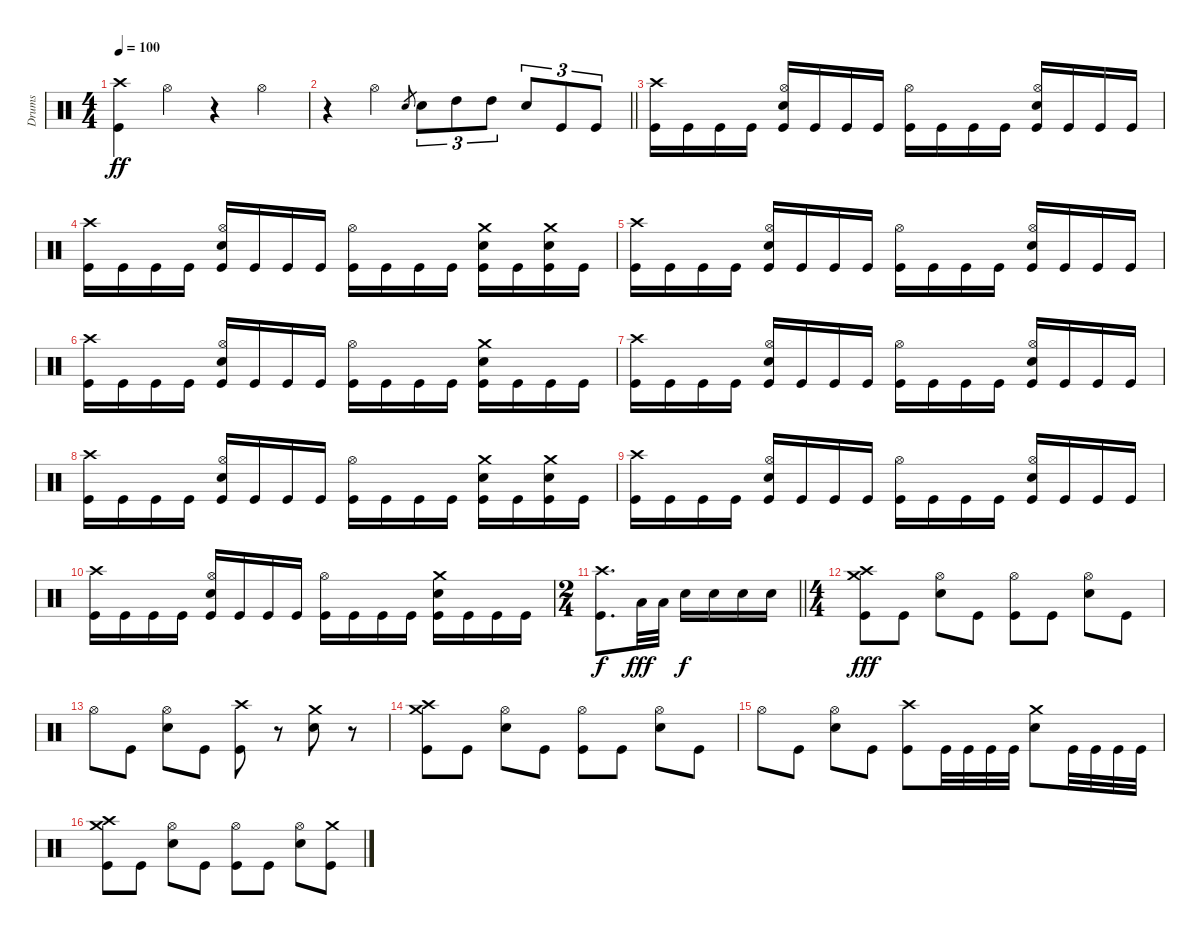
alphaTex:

\track ("Drums" "Drums") {instrument percussion}
\staff {score}
\articulation defaults
\ts (4 4)
\tempo 100
\clef neutral
\ks c
("Crash high (hit)" "Kick (hit)").4{dy ff} "Hi-Hat (open)".4 r.4 "Hi-Hat (open)".4 |
\barLineRight lightlight
r.4 "Hi-Hat (open)".4 "Snare (hit) 2".8{gr} "Snare (hit) 2".8{tu (3 2)} "High Tom (hit)".8{tu (3 2)} "High Tom (hit)".8{tu (3 2)} "Snare (hit) 2".8{tu (3 2)} "Kick (hit)".8{tu (3 2)} "Kick (hit)".8{tu (3 2)} |
("Crash high (hit)" "Kick (hit)").16 "Kick (hit)".16 "Kick (hit)".16 "Kick (hit)".16 ("Hi-Hat (open)" "Kick (hit)" "Snare (hit) 2").16 "Kick (hit)".16 "Kick (hit)".16 "Kick (hit)".16 ("Hi-Hat (open)" "Kick (hit)").16 "Kick (hit)".16 "Kick (hit)".16 "Kick (hit)".16 ("Hi-Hat (open)" "Kick (hit)" "Snare (hit) 2").16 "Kick (hit)".16 "Kick (hit)".16 "Kick (hit)".16 |
("Crash high (hit)" "Kick (hit)").16 "Kick (hit)".16 "Kick (hit)".16 "Kick (hit)".16 ("Hi-Hat (open)" "Kick (hit)" "Snare (hit) 2").16 "Kick (hit)".16 "Kick (hit)".16 "Kick (hit)".16 ("Hi-Hat (open)" "Kick (hit)").16 "Kick (hit)".16 "Kick (hit)".16 "Kick (hit)".16 ("Crash medium (hit)" "Kick (hit)" "Snare (hit) 2").16 "Kick (hit)".16 ("Crash medium (hit)" "Kick (hit)" "Snare (hit) 2").16 "Kick (hit)".16 |
("Crash high (hit)" "Kick (hit)").16 "Kick (hit)".16 "Kick (hit)".16 "Kick (hit)".16 ("Hi-Hat (open)" "Kick (hit)" "Snare (hit) 2").16 "Kick (hit)".16 "Kick (hit)".16 "Kick (hit)".16 ("Hi-Hat (open)" "Kick (hit)").16 "Kick (hit)".16 "Kick (hit)".16 "Kick (hit)".16 ("Hi-Hat (open)" "Kick (hit)" "Snare (hit) 2").16 "Kick (hit)".16 "Kick (hit)".16 "Kick (hit)".16 |
("Crash high (hit)" "Kick (hit)").16 "Kick (hit)".16 "Kick (hit)".16 "Kick (hit)".16 ("Hi-Hat (open)" "Kick (hit)" "Snare (hit) 2").16 "Kick (hit)".16 "Kick (hit)".16 "Kick (hit)".16 ("Hi-Hat (open)" "Kick (hit)").16 "Kick (hit)".16 "Kick (hit)".16 "Kick (hit)".16 ("Crash medium (hit)" "Kick (hit)" "Snare (hit) 2").16 "Kick (hit)".16 "Kick (hit)".16 "Kick (hit)".16 |
("Crash high (hit)" "Kick (hit)").16 "Kick (hit)".16 "Kick (hit)".16 "Kick (hit)".16 ("Hi-Hat (open)" "Kick (hit)" "Snare (hit) 2").16 "Kick (hit)".16 "Kick (hit)".16 "Kick (hit)".16 ("Hi-Hat (open)" "Kick (hit)").16 "Kick (hit)".16 "Kick (hit)".16 "Kick (hit)".16 ("Hi-Hat (open)" "Kick (hit)" "Snare (hit) 2").16 "Kick (hit)".16 "Kick (hit)".16 "Kick (hit)".16 |
("Crash high (hit)" "Kick (hit)").16 "Kick (hit)".16 "Kick (hit)".16 "Kick (hit)".16 ("Hi-Hat (open)" "Kick (hit)" "Snare (hit) 2").16 "Kick (hit)".16 "Kick (hit)".16 "Kick (hit)".16 ("Hi-Hat (open)" "Kick (hit)").16 "Kick (hit)".16 "Kick (hit)".16 "Kick (hit)".16 ("Crash medium (hit)" "Kick (hit)" "Snare (hit) 2").16 "Kick (hit)".16 ("Crash medium (hit)" "Kick (hit)" "Snare (hit) 2").16 "Kick (hit)".16 |
("Crash high (hit)" "Kick (hit)").16 "Kick (hit)".16 "Kick (hit)".16 "Kick (hit)".16 ("Hi-Hat (open)" "Kick (hit)" "Snare (hit) 2").16 "Kick (hit)".16 "Kick (hit)".16 "Kick (hit)".16 ("Hi-Hat (open)" "Kick (hit)").16 "Kick (hit)".16 "Kick (hit)".16 "Kick (hit)".16 ("Hi-Hat (open)" "Kick (hit)" "Snare (hit) 2").16 "Kick (hit)".16 "Kick (hit)".16 "Kick (hit)".16 |
("Crash high (hit)" "Kick (hit)").16 "Kick (hit)".16 "Kick (hit)".16 "Kick (hit)".16 ("Hi-Hat (open)" "Kick (hit)" "Snare (hit) 2").16 "Kick (hit)".16 "Kick (hit)".16 "Kick (hit)".16 ("Hi-Hat (open)" "Kick (hit)").16 "Kick (hit)".16 "Kick (hit)".16 "Kick (hit)".16 ("Crash medium (hit)" "Kick (hit)" "Snare (hit) 2").16 "Kick (hit)".16 "Kick (hit)".16 "Kick (hit)".16 |
\ts (2 4)
\barLineRight lightlight
("Crash high (hit)" "Kick (hit)").8{d dy f} "Low Tom (hit)".32{dy fff} "Low Tom (hit)".32 "Snare (hit) 2".16{dy f} "Snare (hit) 2".16 "Snare (hit) 2".16 "Snare (hit) 2".16 |
\ts (4 4)
("Crash high (hit)" "Crash medium (hit)" "Kick (hit)").8{dy fff} "Kick (hit)".8 ("Hi-Hat (open)" "Snare (hit) 2").8 "Kick (hit)".8 ("Hi-Hat (open)" "Kick (hit)").8 "Kick (hit)".8 ("Hi-Hat (open)" "Snare (hit) 2").8 "Kick (hit)".8 |
"Hi-Hat (open)".8 "Kick (hit)".8 ("Hi-Hat (open)" "Snare (hit) 2").8 "Kick (hit)".8 ("Crash high (hit)" "Kick (hit)").8 r.8 ("Crash medium (hit)" "Snare (hit) 2").8 r.8 |
("Crash high (hit)" "Crash medium (hit)" "Kick (hit)").8 "Kick (hit)".8 ("Hi-Hat (open)" "Snare (hit) 2").8 "Kick (hit)".8 ("Hi-Hat (open)" "Kick (hit)").8 "Kick (hit)".8 ("Hi-Hat (open)" "Snare (hit) 2").8 "Kick (hit)".8 |
"Hi-Hat (open)".8 "Kick (hit)".8 ("Hi-Hat (open)" "Snare (hit) 2").8 "Kick (hit)".8 ("Crash high (hit)" "Kick (hit)").8 "Kick (hit)".32 "Kick (hit)".32 "Kick (hit)".32 "Kick (hit)".32 ("Crash medium (hit)" "Snare (hit) 2").8 "Kick (hit)".32 "Kick (hit)".32 "Kick (hit)".32 "Kick (hit)".32 |
("Crash high (hit)" "Crash medium (hit)" "Kick (hit)").8 "Kick (hit)".8 ("Hi-Hat (open)" "Snare (hit) 2").8 "Kick (hit)".8 ("Hi-Hat (open)" "Kick (hit)").8 "Kick (hit)".8 ("Hi-Hat (open)" "Snare (hit) 2").8 ("Crash medium (hit)" "Kick (hit)").8
